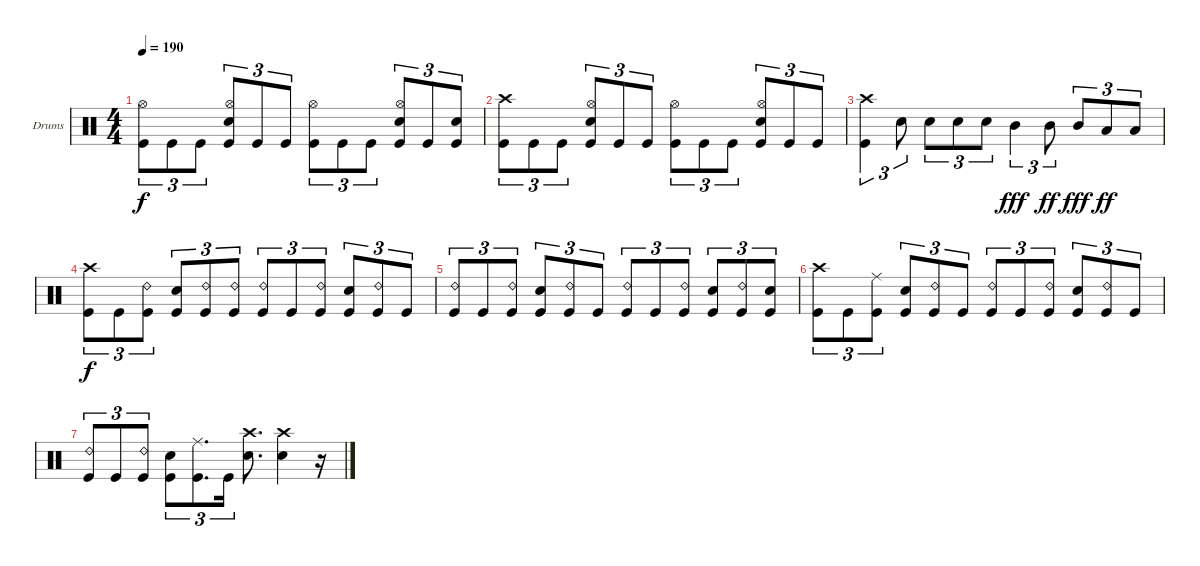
\bracketExtendMode groupsimilarinstruments
\firstSystemTrackNameOrientation horizontal
\otherSystemsTrackNameOrientation horizontal
\track ("Drums" "Drums") {instrument percussion}
\staff {score}
\articulation defaults
\ts (4 4)
\tempo 190
\clef neutral
\ks c
("Kick (hit)" "Hi-Hat (open)").8{tu (3 2) dy f} "Kick (hit)".8{tu (3 2)} "Kick (hit)".8{tu (3 2)} ("Snare (hit) 2" "Kick (hit)" "Hi-Hat (open)").8{tu (3 2)} "Kick (hit)".8{tu (3 2)} "Kick (hit)".8{tu (3 2)} ("Kick (hit)" "Hi-Hat (open)").8{tu (3 2)} "Kick (hit)".8{tu (3 2)} "Kick (hit)".8{tu (3 2)} ("Snare (hit) 2" "Kick (hit)" "Hi-Hat (open)").8{tu (3 2)} "Kick (hit)".8{tu (3 2)} ("Kick (hit)" "Snare (hit) 2").8{tu (3 2)} |
("Kick (hit)" "Crash high (hit)").8{tu (3 2)} "Kick (hit)".8{tu (3 2)} "Kick (hit)".8{tu (3 2)} ("Snare (hit) 2" "Kick (hit)" "Hi-Hat (open)").8{tu (3 2)} "Kick (hit)".8{tu (3 2)} "Kick (hit)".8{tu (3 2)} ("Kick (hit)" "Hi-Hat (open)").8{tu (3 2)} "Kick (hit)".8{tu (3 2)} "Kick (hit)".8{tu (3 2)} ("Snare (hit) 2" "Kick (hit)" "Hi-Hat (open)").8{tu (3 2)} "Kick (hit)".8{tu (3 2)} "Kick (hit)".8{tu (3 2)} |
("Kick (hit)" "Crash high (hit)").4{tu (3 2)} "Snare (hit) 2".8{tu (3 2)} "Snare (hit) 2".8{tu (3 2)} "Snare (hit) 2".8{tu (3 2)} "Snare (hit) 2".8{tu (3 2)} "Mid Tom (hit)".4{tu (3 2) dy fff} "Mid Tom (hit)".8{tu (3 2) dy ff} "Mid Tom (hit)".8{tu (3 2) dy fff} "Low Tom (hit)".8{tu (3 2) dy ff} "Low Tom (hit)".8{tu (3 2)} |
("Kick (hit)" "Crash high (hit)").8{tu (3 2) dy f} "Kick (hit)".8{tu (3 2)} ("Kick (hit)" "Ride (bell) 2").8{tu (3 2)} ("Snare (hit) 2" "Kick (hit)").8{tu (3 2)} ("Kick (hit)" "Ride (bell) 2").8{tu (3 2)} ("Kick (hit)" "Ride (bell) 2").8{tu (3 2)} ("Kick (hit)" "Ride (bell) 2").8{tu (3 2)} "Kick (hit)".8{tu (3 2)} ("Kick (hit)" "Ride (bell) 2").8{tu (3 2)} ("Snare (hit) 2" "Kick (hit)").8{tu (3 2)} ("Kick (hit)" "Ride (bell) 2").8{tu (3 2)} "Kick (hit)".8{tu (3 2)} |
("Kick (hit)" "Ride (bell) 2").8{tu (3 2)} "Kick (hit)".8{tu (3 2)} ("Kick (hit)" "Ride (bell) 2").8{tu (3 2)} ("Snare (hit) 2" "Kick (hit)").8{tu (3 2)} ("Kick (hit)" "Ride (bell) 2").8{tu (3 2)} "Kick (hit)".8{tu (3 2)} ("Kick (hit)" "Ride (bell) 2").8{tu (3 2)} "Kick (hit)".8{tu (3 2)} ("Kick (hit)" "Ride (bell) 2").8{tu (3 2)} ("Snare (hit) 2" "Kick (hit)").8{tu (3 2)} ("Kick (hit)" "Ride (bell) 2").8{tu (3 2)} ("Kick (hit)" "Snare (hit) 2").8{tu (3 2)} |
("Kick (hit)" "Crash high (hit)").8{tu (3 2)} "Kick (hit)".8{tu (3 2)} ("Kick (hit)" "Ride (middle)").8{tu (3 2)} ("Snare (hit) 2" "Kick (hit)").8{tu (3 2)} ("Kick (hit)" "Ride (bell) 2").8{tu (3 2)} "Kick (hit)".8{tu (3 2)} ("Kick (hit)" "Ride (bell) 2").8{tu (3 2)} "Kick (hit)".8{tu (3 2)} ("Kick (hit)" "Ride (bell) 2").8{tu (3 2)} ("Snare (hit) 2" "Kick (hit)").8{tu (3 2)} ("Kick (hit)" "Ride (bell) 2").8{tu (3 2)} "Kick (hit)".8{tu (3 2)} |
("Kick (hit)" "Ride (bell) 2").8{tu (3 2)} "Kick (hit)".8{tu (3 2)} ("Kick (hit)" "Ride (bell) 2").8{tu (3 2)} ("Snare (hit) 2" "Kick (hit)").8{tu (3 2)} ("Kick (hit)" "Ride (middle)").8{d tu (3 2)} "Kick (hit)".16{tu (3 2)} ("Snare (hit) 2" "Crash high (hit)").8{d} ("Snare (hit) 2" "Crash high (hit)").4 r.16
